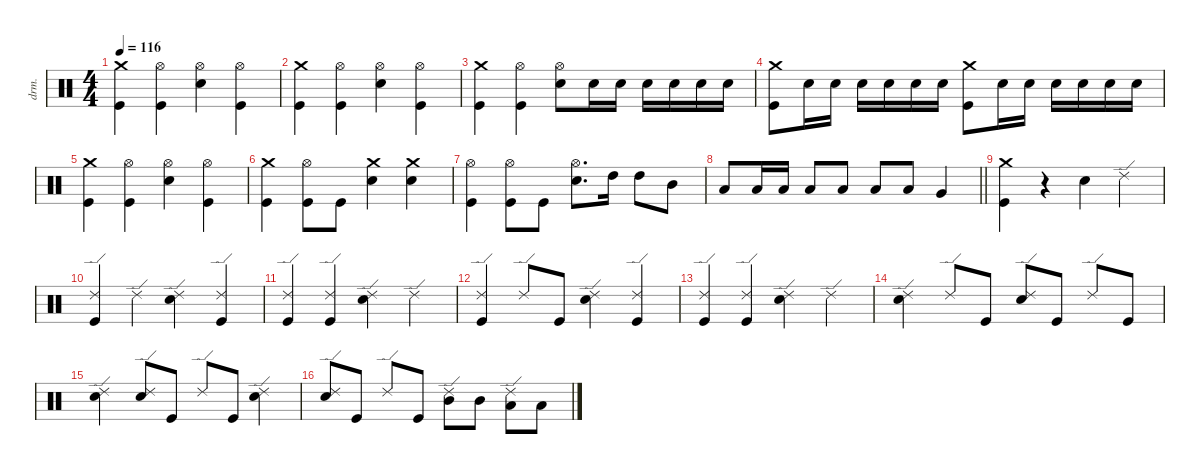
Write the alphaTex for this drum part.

\defaultSystemsLayout 4
\hideDynamics
\bracketExtendMode nobrackets
\otherSystemsTrackNameOrientation horizontal
\track ("Drum" "drm.") {instrument percussion}
\staff {score}
\articulation defaults
\ts (4 4)
\tempo 116
\clef neutral
\ks c
("Kick (hit)" "Crash medium (hit)").4{dy f beam Down} ("Kick (hit)" "Hi-Hat (open)").4{beam Down} ("Snare (hit) 2" "Hi-Hat (open)").4{beam Down} ("Kick (hit)" "Hi-Hat (open)").4{beam Down} |
("Kick (hit)" "Crash medium (hit)").4{beam Down} ("Kick (hit)" "Hi-Hat (open)").4{beam Down} ("Snare (hit) 2" "Hi-Hat (open)").4{beam Down} ("Kick (hit)" "Hi-Hat (open)").4{beam Down} |
("Kick (hit)" "Crash medium (hit)").4{beam Down} ("Kick (hit)" "Hi-Hat (open)").4{beam Down} ("Snare (hit) 2" "Hi-Hat (open)").8{beam Down} "Snare (hit) 2".16{beam Down} "Snare (hit) 2".16{beam Down} "Snare (hit) 2".16{beam Down} "Snare (hit) 2".16{beam Down} "Snare (hit) 2".16{beam Down} "Snare (hit) 2".16{beam Down} |
("Kick (hit)" "Crash medium (hit)").8{beam Down} "Snare (hit) 2".16{beam Down} "Snare (hit) 2".16{beam Down} "Snare (hit) 2".16{beam Down} "Snare (hit) 2".16{beam Down} "Snare (hit) 2".16{beam Down} "Snare (hit) 2".16{beam Down} ("Kick (hit)" "Crash medium (hit)").8{beam Down} "Snare (hit) 2".16{beam Down} "Snare (hit) 2".16{beam Down} "Snare (hit) 2".16{beam Down} "Snare (hit) 2".16{beam Down} "Snare (hit) 2".16{beam Down} "Snare (hit) 2".16{beam Down} |
("Kick (hit)" "Crash medium (hit)").4{beam Down} ("Kick (hit)" "Hi-Hat (open)").4{beam Down} ("Snare (hit) 2" "Hi-Hat (open)").4{beam Down} ("Kick (hit)" "Hi-Hat (open)").4{beam Down} |
("Kick (hit)" "Crash medium (hit)").4{beam Down} ("Kick (hit)" "Hi-Hat (open)").8{beam Down} "Kick (hit)".8{beam Down} ("Snare (hit) 2" "Crash medium (hit)").4{beam Down} ("Snare (hit) 2" "Crash medium (hit)").4{beam Down} |
("Kick (hit)" "Hi-Hat (open)").4{beam Down} ("Kick (hit)" "Hi-Hat (open)").8{beam Down} "Kick (hit)".8{beam Down} ("Snare (hit) 2" "Hi-Hat (open)").8{d beam Down} "High Tom (hit)".16{beam Down} "High Tom (hit)".8{beam Down} "Mid Tom (hit)".8{beam Down} |
\barLineRight lightlight "Low Tom (hit)".8{beam Up} "Low Tom (hit)".16{beam Up} "Low Tom (hit)".16{beam Up} "Low Tom (hit)".8{beam Up} "Low Tom (hit)".8{beam Up} "Low Tom (hit)".8{beam Up} "Low Tom (hit)".8{beam Up} "Very Low Tom (hit)".4{beam Up}
|
("Kick (hit)" "Crash medium (hit)").4{beam Down} r.4{beam Down} "Snare (hit) 2".4{beam Down} "Ride (edge) 2".4{beam Down} |
("Kick (hit)" "Ride (edge) 2").4{beam Up} "Ride (edge) 2".4{beam Down} ("Snare (hit) 2" "Ride (edge) 2").4{beam Down} ("Kick (hit)" "Ride (edge) 2").4{beam Up} |
("Kick (hit)" "Ride (edge) 2").4{beam Up} ("Kick (hit)" "Ride (edge) 2").4{beam Up} ("Snare (hit) 2" "Ride (edge) 2").4{beam Down} "Ride (edge) 2".4{beam Down} |
("Kick (hit)" "Ride (edge) 2").4{beam Up} "Ride (edge) 2".8{beam Up} "Kick (hit)".8{beam Up} ("Snare (hit) 2" "Ride (edge) 2").4{beam Down} ("Kick (hit)" "Ride (edge) 2").4{beam Up} |
("Kick (hit)" "Ride (edge) 2").4{beam Up} ("Kick (hit)" "Ride (edge) 2").4{beam Up} ("Snare (hit) 2" "Ride (edge) 2").4{beam Down} "Ride (edge) 2".4{beam Down} |
("Snare (hit) 2" "Ride (edge) 2").4{beam Down} "Ride (edge) 2".8{beam Up} "Kick (hit)".8{beam Up} ("Snare (hit) 2" "Ride (edge) 2").8{beam Up} "Kick (hit)".8{beam Up} "Ride (edge) 2".8{beam Up} "Kick (hit)".8{beam Up} |
("Snare (hit) 2" "Ride (edge) 2").4{beam Down} ("Snare (hit) 2" "Ride (edge) 2").8{beam Up} "Kick (hit)".8{beam Up} "Ride (edge) 2".8{beam Up} "Kick (hit)".8{beam Up} ("Snare (hit) 2" "Ride (edge) 2").4{beam Down} |
("Snare (hit) 2" "Ride (edge) 2").8{beam Up} "Kick (hit)".8{beam Up} "Ride (edge) 2".8{beam Up} "Kick (hit)".8{beam Up} ("Mid Tom (hit)" "Ride (edge) 2").8{beam Down} "Mid Tom (hit)".8{beam Down} ("Low Tom (hit)" "Ride (edge) 2").8{beam Down} "Low Tom (hit)".8{beam Down}
